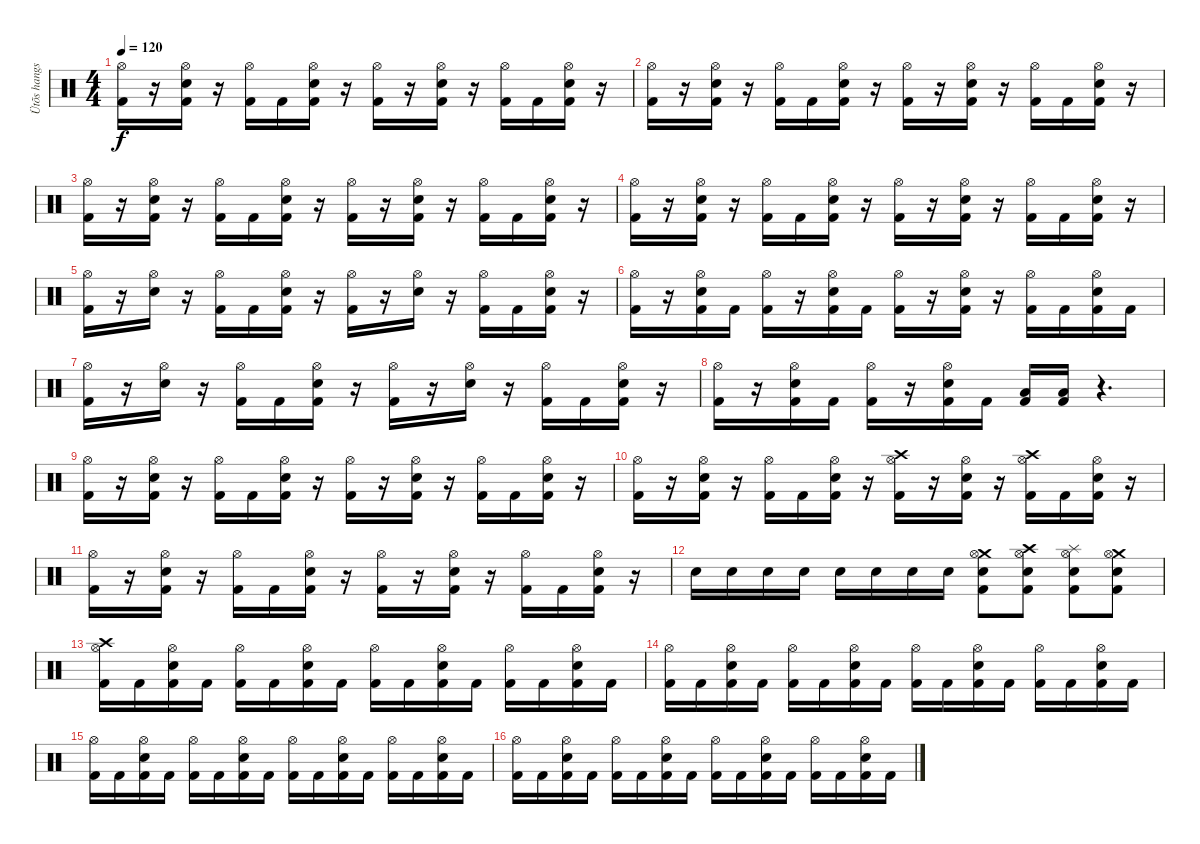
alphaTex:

\track ("Ütõs hangszer" "Ütõs hangs") {instrument percussion}
\staff {score}
\articulation defaults
\ts (4 4)
\tempo 120
\clef neutral
\ks c
("Hi-Hat (open)" "Kick (hit) 2").16{dy f} r.16 ("Hi-Hat (open)" "Electric Snare (hit)" "Kick (hit) 2").16 r.16 ("Hi-Hat (open)" "Kick (hit) 2").16 "Kick (hit) 2".16 ("Hi-Hat (open)" "Electric Snare (hit)" "Kick (hit) 2").16 r.16 ("Hi-Hat (open)" "Kick (hit) 2").16 r.16 ("Hi-Hat (open)" "Electric Snare (hit)" "Kick (hit) 2").16 r.16 ("Hi-Hat (open)" "Kick (hit) 2").16 "Kick (hit) 2".16 ("Hi-Hat (open)" "Electric Snare (hit)" "Kick (hit) 2").16 r.16 |
("Hi-Hat (open)" "Kick (hit) 2").16 r.16 ("Hi-Hat (open)" "Electric Snare (hit)" "Kick (hit) 2").16 r.16 ("Hi-Hat (open)" "Kick (hit) 2").16 "Kick (hit) 2".16 ("Hi-Hat (open)" "Electric Snare (hit)" "Kick (hit) 2").16 r.16 ("Hi-Hat (open)" "Kick (hit) 2").16 r.16 ("Hi-Hat (open)" "Electric Snare (hit)" "Kick (hit) 2").16 r.16 ("Hi-Hat (open)" "Kick (hit) 2").16 "Kick (hit) 2".16 ("Hi-Hat (open)" "Electric Snare (hit)" "Kick (hit) 2").16 r.16 |
("Hi-Hat (open)" "Kick (hit) 2").16 r.16 ("Hi-Hat (open)" "Electric Snare (hit)" "Kick (hit) 2").16 r.16 ("Hi-Hat (open)" "Kick (hit) 2").16 "Kick (hit) 2".16 ("Hi-Hat (open)" "Electric Snare (hit)" "Kick (hit) 2").16 r.16 ("Hi-Hat (open)" "Kick (hit) 2").16 r.16 ("Hi-Hat (open)" "Electric Snare (hit)" "Kick (hit) 2").16 r.16 ("Hi-Hat (open)" "Kick (hit) 2").16 "Kick (hit) 2".16 ("Hi-Hat (open)" "Electric Snare (hit)" "Kick (hit) 2").16 r.16 |
("Hi-Hat (open)" "Kick (hit) 2").16 r.16 ("Hi-Hat (open)" "Electric Snare (hit)" "Kick (hit) 2").16 r.16 ("Hi-Hat (open)" "Kick (hit) 2").16 "Kick (hit) 2".16 ("Hi-Hat (open)" "Electric Snare (hit)" "Kick (hit) 2").16 r.16 ("Hi-Hat (open)" "Kick (hit) 2").16 r.16 ("Hi-Hat (open)" "Electric Snare (hit)" "Kick (hit) 2").16 r.16 ("Hi-Hat (open)" "Kick (hit) 2").16 "Kick (hit) 2".16 ("Hi-Hat (open)" "Electric Snare (hit)" "Kick (hit) 2").16 r.16 |
("Hi-Hat (open)" "Kick (hit) 2").16 r.16 ("Hi-Hat (open)" "Electric Snare (hit)").16 r.16 ("Hi-Hat (open)" "Kick (hit) 2").16 "Kick (hit) 2".16 ("Hi-Hat (open)" "Electric Snare (hit)" "Kick (hit) 2").16 r.16 ("Hi-Hat (open)" "Kick (hit) 2").16 r.16 ("Hi-Hat (open)" "Electric Snare (hit)").16 r.16 ("Hi-Hat (open)" "Kick (hit) 2").16 "Kick (hit) 2".16 ("Hi-Hat (open)" "Electric Snare (hit)" "Kick (hit) 2").16 r.16 |
("Hi-Hat (open)" "Kick (hit) 2").16 r.16 ("Hi-Hat (open)" "Electric Snare (hit)" "Kick (hit) 2").16 "Kick (hit) 2".16 ("Hi-Hat (open)" "Kick (hit) 2").16 r.16 ("Hi-Hat (open)" "Electric Snare (hit)" "Kick (hit) 2").16 "Kick (hit) 2".16 ("Hi-Hat (open)" "Kick (hit) 2").16 r.16 ("Hi-Hat (open)" "Electric Snare (hit)" "Kick (hit) 2").16 r.16 ("Hi-Hat (open)" "Kick (hit) 2").16 "Kick (hit) 2".16 ("Hi-Hat (open)" "Electric Snare (hit)" "Kick (hit) 2").16 "Kick (hit) 2".16 |
("Hi-Hat (open)" "Kick (hit) 2").16 r.16 ("Hi-Hat (open)" "Electric Snare (hit)").16 r.16 ("Hi-Hat (open)" "Kick (hit) 2").16 "Kick (hit) 2".16 ("Hi-Hat (open)" "Electric Snare (hit)" "Kick (hit) 2").16 r.16 ("Hi-Hat (open)" "Kick (hit) 2").16 r.16 ("Hi-Hat (open)" "Electric Snare (hit)").16 r.16 ("Hi-Hat (open)" "Kick (hit) 2").16 "Kick (hit) 2".16 ("Hi-Hat (open)" "Electric Snare (hit)" "Kick (hit) 2").16 r.16 |
("Hi-Hat (open)" "Kick (hit) 2").16 r.16 ("Hi-Hat (open)" "Electric Snare (hit)" "Kick (hit) 2").16 "Kick (hit) 2".16 ("Hi-Hat (open)" "Kick (hit) 2").16 r.16 ("Hi-Hat (open)" "Electric Snare (hit)" "Kick (hit) 2").16 "Kick (hit) 2".16 ("Low Floor Tom (hit)" "Kick (hit) 2").16 ("Low Floor Tom (hit)" "Kick (hit) 2").16 r.4{d} |
("Hi-Hat (open)" "Kick (hit) 2").16 r.16 ("Hi-Hat (open)" "Electric Snare (hit)" "Kick (hit) 2").16 r.16 ("Hi-Hat (open)" "Kick (hit) 2").16 "Kick (hit) 2".16 ("Hi-Hat (open)" "Electric Snare (hit)" "Kick (hit) 2").16 r.16 ("Hi-Hat (open)" "Kick (hit) 2").16 r.16 ("Hi-Hat (open)" "Electric Snare (hit)" "Kick (hit) 2").16 r.16 ("Hi-Hat (open)" "Kick (hit) 2").16 "Kick (hit) 2".16 ("Hi-Hat (open)" "Electric Snare (hit)" "Kick (hit) 2").16 r.16 |
("Hi-Hat (open)" "Kick (hit) 2").16 r.16 ("Hi-Hat (open)" "Electric Snare (hit)" "Kick (hit) 2").16 r.16 ("Hi-Hat (open)" "Kick (hit) 2").16 "Kick (hit) 2".16 ("Hi-Hat (open)" "Electric Snare (hit)" "Kick (hit) 2").16 r.16 ("Crash high (hit)" "Hi-Hat (open)" "Kick (hit) 2").16 r.16 ("Hi-Hat (open)" "Electric Snare (hit)" "Kick (hit) 2").16 r.16 ("Crash high (hit)" "Hi-Hat (open)" "Kick (hit) 2").16 "Kick (hit) 2".16 ("Hi-Hat (open)" "Electric Snare (hit)" "Kick (hit) 2").16 r.16 |
("Hi-Hat (open)" "Kick (hit) 2").16 r.16 ("Hi-Hat (open)" "Electric Snare (hit)" "Kick (hit) 2").16 r.16 ("Hi-Hat (open)" "Kick (hit) 2").16 "Kick (hit) 2".16 ("Hi-Hat (open)" "Electric Snare (hit)" "Kick (hit) 2").16 r.16 ("Hi-Hat (open)" "Kick (hit) 2").16 r.16 ("Hi-Hat (open)" "Electric Snare (hit)" "Kick (hit) 2").16 r.16 ("Hi-Hat (open)" "Kick (hit) 2").16 "Kick (hit) 2".16 ("Hi-Hat (open)" "Electric Snare (hit)" "Kick (hit) 2").16 r.16 |
"Electric Snare (hit)".16 "Electric Snare (hit)".16 "Electric Snare (hit)".16 "Electric Snare (hit)".16 "Electric Snare (hit)".16 "Electric Snare (hit)".16 "Electric Snare (hit)".16 "Electric Snare (hit)".16 ("Crash medium (hit)" "Hi-Hat (open)" "Electric Snare (hit)" "Kick (hit) 2").8 ("Crash high (hit)" "Hi-Hat (open)" "Electric Snare (hit)" "Kick (hit) 2").8 ("Splash (hit)" "Hi-Hat (open)" "Electric Snare (hit)" "Kick (hit) 2").8 ("Crash medium (hit)" "Hi-Hat (open)" "Electric Snare (hit)" "Kick (hit) 2").8 |
("Crash high (hit)" "Hi-Hat (open)" "Kick (hit) 2").16 "Kick (hit) 2".16 ("Hi-Hat (open)" "Electric Snare (hit)" "Kick (hit) 2").16 "Kick (hit) 2".16 ("Hi-Hat (open)" "Kick (hit) 2").16 "Kick (hit) 2".16 ("Hi-Hat (open)" "Electric Snare (hit)" "Kick (hit) 2").16 "Kick (hit) 2".16 ("Hi-Hat (open)" "Kick (hit) 2").16 "Kick (hit) 2".16 ("Hi-Hat (open)" "Electric Snare (hit)" "Kick (hit) 2").16 "Kick (hit) 2".16 ("Hi-Hat (open)" "Kick (hit) 2").16 "Kick (hit) 2".16 ("Hi-Hat (open)" "Electric Snare (hit)" "Kick (hit) 2").16 "Kick (hit) 2".16 |
("Hi-Hat (open)" "Kick (hit) 2").16 "Kick (hit) 2".16 ("Hi-Hat (open)" "Electric Snare (hit)" "Kick (hit) 2").16 "Kick (hit) 2".16 ("Hi-Hat (open)" "Kick (hit) 2").16 "Kick (hit) 2".16 ("Hi-Hat (open)" "Electric Snare (hit)" "Kick (hit) 2").16 "Kick (hit) 2".16 ("Hi-Hat (open)" "Kick (hit) 2").16 "Kick (hit) 2".16 ("Hi-Hat (open)" "Electric Snare (hit)" "Kick (hit) 2").16 "Kick (hit) 2".16 ("Hi-Hat (open)" "Kick (hit) 2").16 "Kick (hit) 2".16 ("Hi-Hat (open)" "Electric Snare (hit)" "Kick (hit) 2").16 "Kick (hit) 2".16 |
("Hi-Hat (open)" "Kick (hit) 2").16 "Kick (hit) 2".16 ("Hi-Hat (open)" "Electric Snare (hit)" "Kick (hit) 2").16 "Kick (hit) 2".16 ("Hi-Hat (open)" "Kick (hit) 2").16 "Kick (hit) 2".16 ("Hi-Hat (open)" "Electric Snare (hit)" "Kick (hit) 2").16 "Kick (hit) 2".16 ("Hi-Hat (open)" "Kick (hit) 2").16 "Kick (hit) 2".16 ("Hi-Hat (open)" "Electric Snare (hit)" "Kick (hit) 2").16 "Kick (hit) 2".16 ("Hi-Hat (open)" "Kick (hit) 2").16 "Kick (hit) 2".16 ("Hi-Hat (open)" "Electric Snare (hit)" "Kick (hit) 2").16 "Kick (hit) 2".16 |
("Hi-Hat (open)" "Kick (hit) 2").16 "Kick (hit) 2".16 ("Hi-Hat (open)" "Electric Snare (hit)" "Kick (hit) 2").16 "Kick (hit) 2".16 ("Hi-Hat (open)" "Kick (hit) 2").16 "Kick (hit) 2".16 ("Hi-Hat (open)" "Electric Snare (hit)" "Kick (hit) 2").16 "Kick (hit) 2".16 ("Hi-Hat (open)" "Kick (hit) 2").16 "Kick (hit) 2".16 ("Hi-Hat (open)" "Electric Snare (hit)" "Kick (hit) 2").16 "Kick (hit) 2".16 ("Hi-Hat (open)" "Kick (hit) 2").16 "Kick (hit) 2".16 ("Hi-Hat (open)" "Electric Snare (hit)" "Kick (hit) 2").16 "Kick (hit) 2".16
